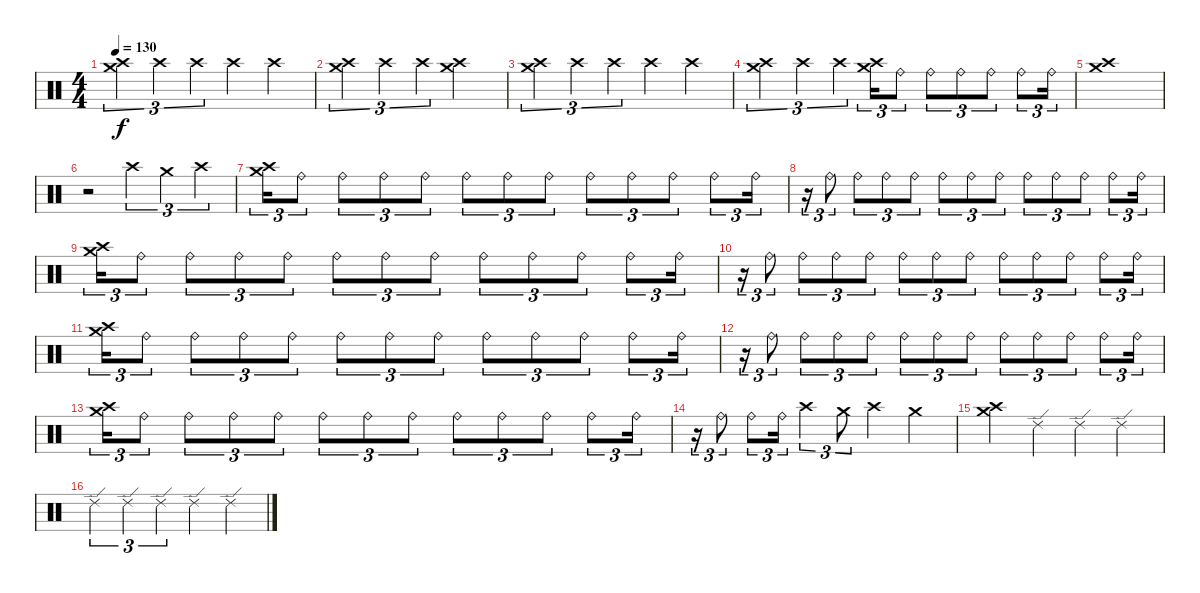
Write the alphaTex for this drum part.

\track "" {instrument percussion}
\staff {score}
\articulation defaults
\ts (4 4)
\tempo 130
\clef neutral
\ks c
("Crash medium (hit)" "Crash high (hit)").4{tu (3 2) dy f} "Crash high (hit)".4{tu (3 2)} "Crash high (hit)".4{tu (3 2)} "Crash high (hit)".4 "Crash high (hit)".4 |
("Crash medium (hit)" "Crash high (hit)").4{tu (3 2)} "Crash high (hit)".4{tu (3 2)} "Crash high (hit)".4{tu (3 2)} ("Crash medium (hit)" "Crash high (hit)").2 |
("Crash medium (hit)" "Crash high (hit)").4{tu (3 2)} "Crash high (hit)".4{tu (3 2)} "Crash high (hit)".4{tu (3 2)} "Crash high (hit)".4 "Crash high (hit)".4 |
("Crash medium (hit)" "Crash high (hit)").4{tu (3 2)} "Crash high (hit)".4{tu (3 2)} "Crash high (hit)".4{tu (3 2)} ("Crash medium (hit)" "Crash high (hit)").16{tu (3 2)} "Ride (bell)".8{tu (3 2)} "Ride (bell)".8{tu (3 2)} "Ride (bell)".8{tu (3 2)} "Ride (bell)".8{tu (3 2)} "Ride (bell)".8{tu (3 2)} "Ride (bell)".16{tu (3 2)} |
("Crash medium (hit)" "Crash high (hit)").1 |
r.2 "Crash high (hit)".4{tu (3 2)} "Crash medium (hit)".4{tu (3 2)} "Crash high (hit)".4{tu (3 2)} |
("Crash medium (hit)" "Crash high (hit)").16{tu (3 2)} "Ride (bell)".8{tu (3 2)} "Ride (bell)".8{tu (3 2)} "Ride (bell)".8{tu (3 2)} "Ride (bell)".8{tu (3 2)} "Ride (bell)".8{tu (3 2)} "Ride (bell)".8{tu (3 2)} "Ride (bell)".8{tu (3 2)} "Ride (bell)".8{tu (3 2)} "Ride (bell)".8{tu (3 2)} "Ride (bell)".8{tu (3 2)} "Ride (bell)".8{tu (3 2)} "Ride (bell)".16{tu (3 2)} |
r.16{tu (3 2)} "Ride (bell)".8{tu (3 2)} "Ride (bell)".8{tu (3 2)} "Ride (bell)".8{tu (3 2)} "Ride (bell)".8{tu (3 2)} "Ride (bell)".8{tu (3 2)} "Ride (bell)".8{tu (3 2)} "Ride (bell)".8{tu (3 2)} "Ride (bell)".8{tu (3 2)} "Ride (bell)".8{tu (3 2)} "Ride (bell)".8{tu (3 2)} "Ride (bell)".8{tu (3 2)} "Ride (bell)".16{tu (3 2)} |
("Crash medium (hit)" "Crash high (hit)").16{tu (3 2)} "Ride (bell)".8{tu (3 2)} "Ride (bell)".8{tu (3 2)} "Ride (bell)".8{tu (3 2)} "Ride (bell)".8{tu (3 2)} "Ride (bell)".8{tu (3 2)} "Ride (bell)".8{tu (3 2)} "Ride (bell)".8{tu (3 2)} "Ride (bell)".8{tu (3 2)} "Ride (bell)".8{tu (3 2)} "Ride (bell)".8{tu (3 2)} "Ride (bell)".8{tu (3 2)} "Ride (bell)".16{tu (3 2)} |
r.16{tu (3 2)} "Ride (bell)".8{tu (3 2)} "Ride (bell)".8{tu (3 2)} "Ride (bell)".8{tu (3 2)} "Ride (bell)".8{tu (3 2)} "Ride (bell)".8{tu (3 2)} "Ride (bell)".8{tu (3 2)} "Ride (bell)".8{tu (3 2)} "Ride (bell)".8{tu (3 2)} "Ride (bell)".8{tu (3 2)} "Ride (bell)".8{tu (3 2)} "Ride (bell)".8{tu (3 2)} "Ride (bell)".16{tu (3 2)} |
("Crash medium (hit)" "Crash high (hit)").16{tu (3 2)} "Ride (bell)".8{tu (3 2)} "Ride (bell)".8{tu (3 2)} "Ride (bell)".8{tu (3 2)} "Ride (bell)".8{tu (3 2)} "Ride (bell)".8{tu (3 2)} "Ride (bell)".8{tu (3 2)} "Ride (bell)".8{tu (3 2)} "Ride (bell)".8{tu (3 2)} "Ride (bell)".8{tu (3 2)} "Ride (bell)".8{tu (3 2)} "Ride (bell)".8{tu (3 2)} "Ride (bell)".16{tu (3 2)} |
r.16{tu (3 2)} "Ride (bell)".8{tu (3 2)} "Ride (bell)".8{tu (3 2)} "Ride (bell)".8{tu (3 2)} "Ride (bell)".8{tu (3 2)} "Ride (bell)".8{tu (3 2)} "Ride (bell)".8{tu (3 2)} "Ride (bell)".8{tu (3 2)} "Ride (bell)".8{tu (3 2)} "Ride (bell)".8{tu (3 2)} "Ride (bell)".8{tu (3 2)} "Ride (bell)".8{tu (3 2)} "Ride (bell)".16{tu (3 2)} |
("Crash medium (hit)" "Crash high (hit)").16{tu (3 2)} "Ride (bell)".8{tu (3 2)} "Ride (bell)".8{tu (3 2)} "Ride (bell)".8{tu (3 2)} "Ride (bell)".8{tu (3 2)} "Ride (bell)".8{tu (3 2)} "Ride (bell)".8{tu (3 2)} "Ride (bell)".8{tu (3 2)} "Ride (bell)".8{tu (3 2)} "Ride (bell)".8{tu (3 2)} "Ride (bell)".8{tu (3 2)} "Ride (bell)".8{tu (3 2)} "Ride (bell)".16{tu (3 2)} |
r.16{tu (3 2)} "Ride (bell)".8{tu (3 2)} "Ride (bell)".8{tu (3 2)} "Ride (bell)".16{tu (3 2)} "Crash high (hit)".4{tu (3 2)} "Crash medium (hit)".8{tu (3 2)} "Crash high (hit)".4 "Crash medium (hit)".4 |
("Crash medium (hit)" "Crash high (hit)").4 "Ride (edge) 2".4 "Ride (edge) 2".4 "Ride (edge) 2".4 |
"Ride (edge) 2".4{tu (3 2)} "Ride (edge) 2".4{tu (3 2)} "Ride (edge) 2".4{tu (3 2)} "Ride (edge) 2".4 "Ride (edge) 2".4
